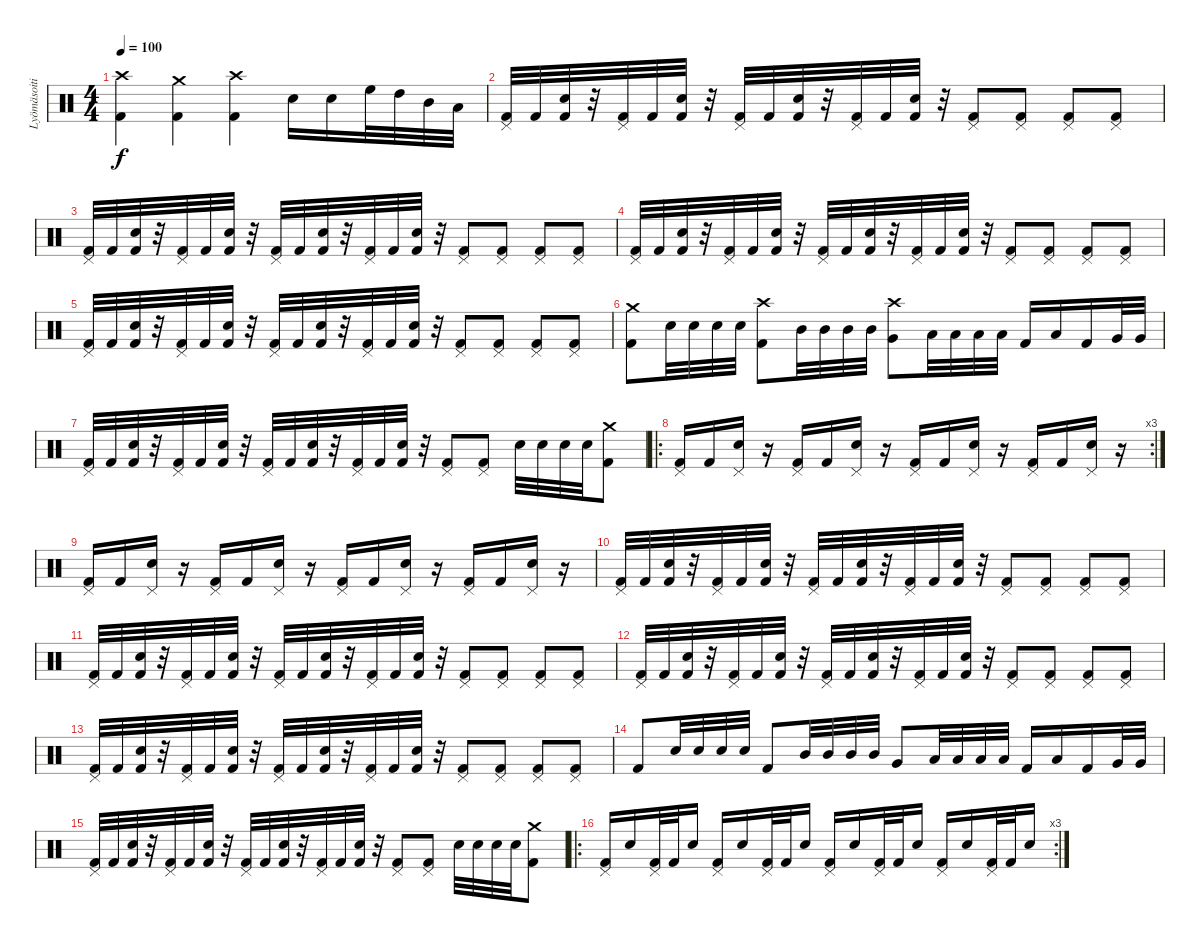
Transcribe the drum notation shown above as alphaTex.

\track ("Lyömäsoitin" "Lyömäsoiti") {instrument percussion}
\staff {score}
\articulation defaults
\ts (4 4)
\tempo 100
\clef neutral
\ks c
("Kick (hit) 2" "Crash high (hit)").4{dy f} ("Kick (hit) 2" "Crash medium (hit)").4 ("Kick (hit) 2" "Crash high (hit)").4 "Snare (hit) 2".16 "Snare (hit) 2".16 "High Floor Tom (hit)".32 "High Tom (hit)".32 "Mid Tom (hit)".32 "Low Tom (hit)".32 |
("Kick (hit) 2" "Pedal Hi-Hat (hit)").32 "Kick (hit) 2".32 ("Kick (hit) 2" "Snare (hit) 2").32 r.32 ("Kick (hit) 2" "Pedal Hi-Hat (hit)").32 "Kick (hit) 2".32 ("Kick (hit) 2" "Snare (hit) 2").32 r.32 ("Kick (hit) 2" "Pedal Hi-Hat (hit)").32 "Kick (hit) 2".32 ("Kick (hit) 2" "Snare (hit) 2").32 r.32 ("Kick (hit) 2" "Pedal Hi-Hat (hit)").32 "Kick (hit) 2".32 ("Kick (hit) 2" "Snare (hit) 2").32 r.32 ("Kick (hit) 2" "Pedal Hi-Hat (hit)").8 ("Kick (hit) 2" "Pedal Hi-Hat (hit)").8 ("Kick (hit) 2" "Pedal Hi-Hat (hit)").8 ("Kick (hit) 2" "Pedal Hi-Hat (hit)").8 |
("Kick (hit) 2" "Pedal Hi-Hat (hit)").32 "Kick (hit) 2".32 ("Kick (hit) 2" "Snare (hit) 2").32 r.32 ("Kick (hit) 2" "Pedal Hi-Hat (hit)").32 "Kick (hit) 2".32 ("Kick (hit) 2" "Snare (hit) 2").32 r.32 ("Kick (hit) 2" "Pedal Hi-Hat (hit)").32 "Kick (hit) 2".32 ("Kick (hit) 2" "Snare (hit) 2").32 r.32 ("Kick (hit) 2" "Pedal Hi-Hat (hit)").32 "Kick (hit) 2".32 ("Kick (hit) 2" "Snare (hit) 2").32 r.32 ("Kick (hit) 2" "Pedal Hi-Hat (hit)").8 ("Kick (hit) 2" "Pedal Hi-Hat (hit)").8 ("Kick (hit) 2" "Pedal Hi-Hat (hit)").8 ("Kick (hit) 2" "Pedal Hi-Hat (hit)").8 |
("Kick (hit) 2" "Pedal Hi-Hat (hit)").32 "Kick (hit) 2".32 ("Kick (hit) 2" "Snare (hit) 2").32 r.32 ("Kick (hit) 2" "Pedal Hi-Hat (hit)").32 "Kick (hit) 2".32 ("Kick (hit) 2" "Snare (hit) 2").32 r.32 ("Kick (hit) 2" "Pedal Hi-Hat (hit)").32 "Kick (hit) 2".32 ("Kick (hit) 2" "Snare (hit) 2").32 r.32 ("Kick (hit) 2" "Pedal Hi-Hat (hit)").32 "Kick (hit) 2".32 ("Kick (hit) 2" "Snare (hit) 2").32 r.32 ("Kick (hit) 2" "Pedal Hi-Hat (hit)").8 ("Kick (hit) 2" "Pedal Hi-Hat (hit)").8 ("Kick (hit) 2" "Pedal Hi-Hat (hit)").8 ("Kick (hit) 2" "Pedal Hi-Hat (hit)").8 |
("Kick (hit) 2" "Pedal Hi-Hat (hit)").32 "Kick (hit) 2".32 ("Kick (hit) 2" "Snare (hit) 2").32 r.32 ("Kick (hit) 2" "Pedal Hi-Hat (hit)").32 "Kick (hit) 2".32 ("Kick (hit) 2" "Snare (hit) 2").32 r.32 ("Kick (hit) 2" "Pedal Hi-Hat (hit)").32 "Kick (hit) 2".32 ("Kick (hit) 2" "Snare (hit) 2").32 r.32 ("Kick (hit) 2" "Pedal Hi-Hat (hit)").32 "Kick (hit) 2".32 ("Kick (hit) 2" "Snare (hit) 2").32 r.32 ("Kick (hit) 2" "Pedal Hi-Hat (hit)").8 ("Kick (hit) 2" "Pedal Hi-Hat (hit)").8 ("Kick (hit) 2" "Pedal Hi-Hat (hit)").8 ("Kick (hit) 2" "Pedal Hi-Hat (hit)").8 |
("Kick (hit) 2" "Crash medium (hit)").8 "Snare (hit) 2".32 "Snare (hit) 2".32 "Snare (hit) 2".32 "Snare (hit) 2".32 ("Kick (hit) 2" "Crash high (hit)").8 "Mid Tom (hit)".32 "Mid Tom (hit)".32 "Mid Tom (hit)".32 "Mid Tom (hit)".32 ("Very Low Tom (hit)" "Crash high (hit)").8 "Low Tom (hit)".32 "Low Tom (hit)".32 "Low Tom (hit)".32 "Low Tom (hit)".32 "Kick (hit) 2".16 "Low Tom (hit)".16 "Kick (hit) 2".16 "Very Low Tom (hit)".32 "Very Low Tom (hit)".32 |
("Kick (hit) 2" "Pedal Hi-Hat (hit)").32 "Kick (hit) 2".32 ("Kick (hit) 2" "Electric Snare (hit)").32 r.32 ("Kick (hit) 2" "Pedal Hi-Hat (hit)").32 "Kick (hit) 2".32 ("Kick (hit) 2" "Electric Snare (hit)").32 r.32 ("Kick (hit) 2" "Pedal Hi-Hat (hit)").32 "Kick (hit) 2".32 ("Kick (hit) 2" "Electric Snare (hit)").32 r.32 ("Kick (hit) 2" "Pedal Hi-Hat (hit)").32 "Kick (hit) 2".32 ("Kick (hit) 2" "Electric Snare (hit)").32 r.32 ("Kick (hit) 2" "Pedal Hi-Hat (hit)").8 ("Kick (hit) 2" "Pedal Hi-Hat (hit)").8 "Snare (hit) 2".32 "Snare (hit) 2".32 "Snare (hit) 2".32 "Snare (hit) 2".32 ("Kick (hit) 2" "Crash medium (hit)").8 |
\ro
\rc 3
("Kick (hit) 2" "Pedal Hi-Hat (hit)").16 "Kick (hit) 2".16 ("Snare (hit) 2" "Pedal Hi-Hat (hit)").16 r.16 ("Kick (hit) 2" "Pedal Hi-Hat (hit)").16 "Kick (hit) 2".16 ("Snare (hit) 2" "Pedal Hi-Hat (hit)").16 r.16 ("Kick (hit) 2" "Pedal Hi-Hat (hit)").16 "Kick (hit) 2".16 ("Snare (hit) 2" "Pedal Hi-Hat (hit)").16 r.16 ("Kick (hit) 2" "Pedal Hi-Hat (hit)").16 "Kick (hit) 2".16 ("Snare (hit) 2" "Pedal Hi-Hat (hit)").16 r.16 |
("Kick (hit) 2" "Pedal Hi-Hat (hit)").16 "Kick (hit) 2".16 ("Electric Snare (hit)" "Pedal Hi-Hat (hit)").16 r.16 ("Kick (hit) 2" "Pedal Hi-Hat (hit)").16 "Kick (hit) 2".16 ("Electric Snare (hit)" "Pedal Hi-Hat (hit)").16 r.16 ("Kick (hit) 2" "Pedal Hi-Hat (hit)").16 "Kick (hit) 2".16 ("Electric Snare (hit)" "Pedal Hi-Hat (hit)").16 r.16 ("Kick (hit) 2" "Pedal Hi-Hat (hit)").16 "Kick (hit) 2".16 ("Electric Snare (hit)" "Pedal Hi-Hat (hit)").16 r.16 |
("Kick (hit) 2" "Pedal Hi-Hat (hit)").32 "Kick (hit) 2".32 ("Kick (hit) 2" "Electric Snare (hit)").32 r.32 ("Kick (hit) 2" "Pedal Hi-Hat (hit)").32 "Kick (hit) 2".32 ("Kick (hit) 2" "Electric Snare (hit)").32 r.32 ("Kick (hit) 2" "Pedal Hi-Hat (hit)").32 "Kick (hit) 2".32 ("Kick (hit) 2" "Electric Snare (hit)").32 r.32 ("Kick (hit) 2" "Pedal Hi-Hat (hit)").32 "Kick (hit) 2".32 ("Kick (hit) 2" "Electric Snare (hit)").32 r.32 ("Kick (hit) 2" "Pedal Hi-Hat (hit)").8 ("Kick (hit) 2" "Pedal Hi-Hat (hit)").8 ("Kick (hit) 2" "Pedal Hi-Hat (hit)").8 ("Kick (hit) 2" "Pedal Hi-Hat (hit)").8 |
("Kick (hit) 2" "Pedal Hi-Hat (hit)").32 "Kick (hit) 2".32 ("Kick (hit) 2" "Electric Snare (hit)").32 r.32 ("Kick (hit) 2" "Pedal Hi-Hat (hit)").32 "Kick (hit) 2".32 ("Kick (hit) 2" "Electric Snare (hit)").32 r.32 ("Kick (hit) 2" "Pedal Hi-Hat (hit)").32 "Kick (hit) 2".32 ("Kick (hit) 2" "Electric Snare (hit)").32 r.32 ("Kick (hit) 2" "Pedal Hi-Hat (hit)").32 "Kick (hit) 2".32 ("Kick (hit) 2" "Electric Snare (hit)").32 r.32 ("Kick (hit) 2" "Pedal Hi-Hat (hit)").8 ("Kick (hit) 2" "Pedal Hi-Hat (hit)").8 ("Kick (hit) 2" "Pedal Hi-Hat (hit)").8 ("Kick (hit) 2" "Pedal Hi-Hat (hit)").8 |
("Kick (hit) 2" "Pedal Hi-Hat (hit)").32 "Kick (hit) 2".32 ("Kick (hit) 2" "Electric Snare (hit)").32 r.32 ("Kick (hit) 2" "Pedal Hi-Hat (hit)").32 "Kick (hit) 2".32 ("Kick (hit) 2" "Electric Snare (hit)").32 r.32 ("Kick (hit) 2" "Pedal Hi-Hat (hit)").32 "Kick (hit) 2".32 ("Kick (hit) 2" "Electric Snare (hit)").32 r.32 ("Kick (hit) 2" "Pedal Hi-Hat (hit)").32 "Kick (hit) 2".32 ("Kick (hit) 2" "Electric Snare (hit)").32 r.32 ("Kick (hit) 2" "Pedal Hi-Hat (hit)").8 ("Kick (hit) 2" "Pedal Hi-Hat (hit)").8 ("Kick (hit) 2" "Pedal Hi-Hat (hit)").8 ("Kick (hit) 2" "Pedal Hi-Hat (hit)").8 |
("Kick (hit) 2" "Pedal Hi-Hat (hit)").32 "Kick (hit) 2".32 ("Kick (hit) 2" "Electric Snare (hit)").32 r.32 ("Kick (hit) 2" "Pedal Hi-Hat (hit)").32 "Kick (hit) 2".32 ("Kick (hit) 2" "Electric Snare (hit)").32 r.32 ("Kick (hit) 2" "Pedal Hi-Hat (hit)").32 "Kick (hit) 2".32 ("Kick (hit) 2" "Electric Snare (hit)").32 r.32 ("Kick (hit) 2" "Pedal Hi-Hat (hit)").32 "Kick (hit) 2".32 ("Kick (hit) 2" "Electric Snare (hit)").32 r.32 ("Kick (hit) 2" "Pedal Hi-Hat (hit)").8 ("Kick (hit) 2" "Pedal Hi-Hat (hit)").8 ("Kick (hit) 2" "Pedal Hi-Hat (hit)").8 ("Kick (hit) 2" "Pedal Hi-Hat (hit)").8 |
"Kick (hit) 2".8 "Electric Snare (hit)".32 "Electric Snare (hit)".32 "Electric Snare (hit)".32 "Electric Snare (hit)".32 "Kick (hit) 2".8 "Mid Tom (hit)".32 "Mid Tom (hit)".32 "Mid Tom (hit)".32 "Mid Tom (hit)".32 "Very Low Tom (hit)".8 "Low Tom (hit)".32 "Low Tom (hit)".32 "Low Tom (hit)".32 "Low Tom (hit)".32 "Kick (hit) 2".16 "Low Tom (hit)".16 "Kick (hit) 2".16 "Very Low Tom (hit)".32 "Very Low Tom (hit)".32 |
("Kick (hit) 2" "Pedal Hi-Hat (hit)").32 "Kick (hit) 2".32 ("Kick (hit) 2" "Electric Snare (hit)").32 r.32 ("Kick (hit) 2" "Pedal Hi-Hat (hit)").32 "Kick (hit) 2".32 ("Kick (hit) 2" "Electric Snare (hit)").32 r.32 ("Kick (hit) 2" "Pedal Hi-Hat (hit)").32 "Kick (hit) 2".32 ("Kick (hit) 2" "Electric Snare (hit)").32 r.32 ("Kick (hit) 2" "Pedal Hi-Hat (hit)").32 "Kick (hit) 2".32 ("Kick (hit) 2" "Electric Snare (hit)").32 r.32 ("Kick (hit) 2" "Pedal Hi-Hat (hit)").8 ("Kick (hit) 2" "Pedal Hi-Hat (hit)").8 "Electric Snare (hit)".32 "Electric Snare (hit)".32 "Electric Snare (hit)".32 "Electric Snare (hit)".32 ("Kick (hit) 2" "Crash medium (hit)").8 |
\ro
\rc 3
("Kick (hit) 2" "Pedal Hi-Hat (hit)").16 "Electric Snare (hit)".16 ("Kick (hit) 2" "Pedal Hi-Hat (hit)").32 "Kick (hit) 2".32 "Electric Snare (hit)".16 ("Kick (hit) 2" "Pedal Hi-Hat (hit)").16 "Electric Snare (hit)".16 ("Kick (hit) 2" "Pedal Hi-Hat (hit)").32 "Kick (hit) 2".32 "Electric Snare (hit)".16 ("Kick (hit) 2" "Pedal Hi-Hat (hit)").16 "Electric Snare (hit)".16 ("Kick (hit) 2" "Pedal Hi-Hat (hit)").32 "Kick (hit) 2".32 "Electric Snare (hit)".16 ("Kick (hit) 2" "Pedal Hi-Hat (hit)").16 "Electric Snare (hit)".16 ("Kick (hit) 2" "Pedal Hi-Hat (hit)").32 "Kick (hit) 2".32 "Electric Snare (hit)".16
